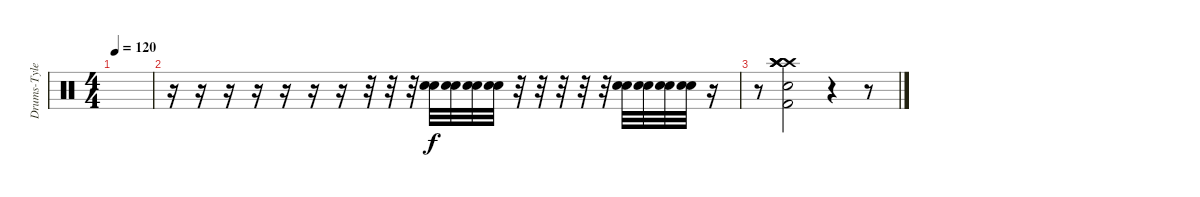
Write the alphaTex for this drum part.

\track ("Drums-Tyler" "Drums-Tyle") {instrument percussion}
\staff {score}
\articulation defaults
\ts (4 4)
\tempo 120
\clef neutral
\ks c
|
r.16 r.16 r.16 r.16 r.16 r.16 r.16 r.32 r.32 r.32 ("Snare (hit) 2" "Snare (hit) 2").32 ("Snare (hit) 2" "Snare (hit) 2").32 ("Snare (hit) 2" "Snare (hit) 2").32 ("Snare (hit) 2" "Snare (hit) 2").32 r.32 r.32 r.32 r.32 r.32 ("Snare (hit) 2" "Snare (hit) 2").32 ("Snare (hit) 2" "Snare (hit) 2").32 ("Snare (hit) 2" "Snare (hit) 2").32 ("Snare (hit) 2" "Snare (hit) 2").32 r.16 |
r.8 ("Snare (hit) 2" "Kick (hit) 2" "Crash high (hit)" "Crash high (hit)" "Crash high (hit)" "Crash high (hit)").2 r.4 r.8
